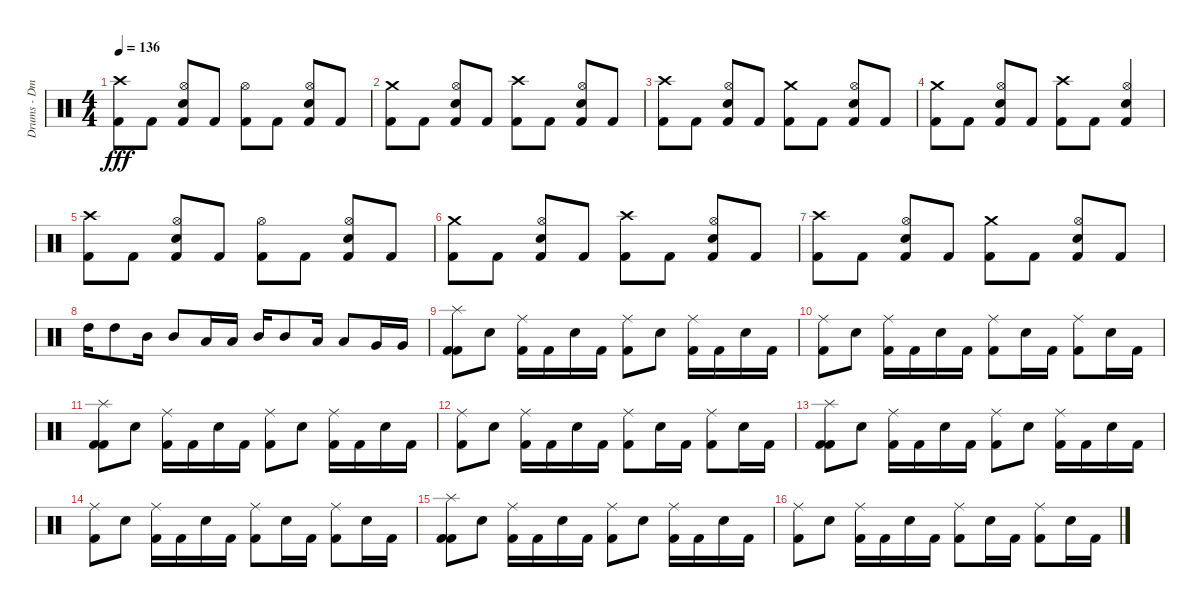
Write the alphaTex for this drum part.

\track ("Drums - Dmitriy Krivenkov" "Drums - Dm") {instrument percussion}
\staff {score}
\articulation defaults
\ts (4 4)
\tempo 136
\clef neutral
\ks c
("Crash high (hit)" "Kick (hit) 2").8{dy fff} "Kick (hit) 2".8 ("Hi-Hat (open)" "Kick (hit) 2" "Electric Snare (hit)").8 "Kick (hit) 2".8 ("Hi-Hat (open)" "Kick (hit) 2").8 "Kick (hit) 2".8 ("Hi-Hat (open)" "Kick (hit) 2" "Electric Snare (hit)").8 "Kick (hit) 2".8 |
("Kick (hit) 2" "Crash medium (hit)").8 "Kick (hit) 2".8 ("Electric Snare (hit)" "Kick (hit) 2" "Hi-Hat (open)").8 "Kick (hit) 2".8 ("Kick (hit) 2" "Crash high (hit)").8 "Kick (hit) 2".8 ("Electric Snare (hit)" "Kick (hit) 2" "Hi-Hat (open)").8 "Kick (hit) 2".8 |
("Crash high (hit)" "Kick (hit) 2").8 "Kick (hit) 2".8 ("Electric Snare (hit)" "Hi-Hat (open)" "Kick (hit) 2").8 "Kick (hit) 2".8 ("Crash medium (hit)" "Kick (hit) 2").8 "Kick (hit) 2".8 ("Electric Snare (hit)" "Hi-Hat (open)" "Kick (hit) 2").8 "Kick (hit) 2".8 |
("Crash medium (hit)" "Kick (hit) 2").8 "Kick (hit) 2".8 ("Hi-Hat (open)" "Electric Snare (hit)" "Kick (hit) 2").8 "Kick (hit) 2".8 ("Crash high (hit)" "Kick (hit) 2").8 "Kick (hit) 2".8 ("Hi-Hat (open)" "Electric Snare (hit)" "Kick (hit) 2").4 |
("Crash high (hit)" "Kick (hit) 2").8 "Kick (hit) 2".8 ("Kick (hit) 2" "Electric Snare (hit)" "Hi-Hat (open)").8 "Kick (hit) 2".8 ("Hi-Hat (open)" "Kick (hit) 2").8 "Kick (hit) 2".8 ("Electric Snare (hit)" "Kick (hit) 2" "Hi-Hat (open)").8 "Kick (hit) 2".8 |
("Kick (hit) 2" "Crash medium (hit)").8 "Kick (hit) 2".8 ("Electric Snare (hit)" "Hi-Hat (open)" "Kick (hit) 2").8 "Kick (hit) 2".8 ("Kick (hit) 2" "Crash high (hit)").8 "Kick (hit) 2".8 ("Electric Snare (hit)" "Hi-Hat (open)" "Kick (hit) 2").8 "Kick (hit) 2".8 |
("Kick (hit) 2" "Crash high (hit)").8 "Kick (hit) 2".8 ("Electric Snare (hit)" "Hi-Hat (open)" "Kick (hit) 2").8 "Kick (hit) 2".8 ("Crash medium (hit)" "Kick (hit) 2").8 "Kick (hit) 2".8 ("Electric Snare (hit)" "Hi-Hat (open)" "Kick (hit) 2").8 "Kick (hit) 2".8 |
"High Tom (hit)".16 "High Tom (hit)".8 "Mid Tom (hit)".16 "Mid Tom (hit)".8 "Low Tom (hit)".16 "Low Tom (hit)".16 "Mid Tom (hit)".16 "Mid Tom (hit)".8 "Low Tom (hit)".16 "Low Tom (hit)".8 "Very Low Tom (hit)".16 "Very Low Tom (hit)".16 |
("Splash (hit)" "Kick (hit) 2" "Kick (hit) 2").8 "Electric Snare (hit)".8 ("Kick (hit) 2" "Ride (middle)").16 "Kick (hit) 2".16 "Electric Snare (hit)".16 "Kick (hit) 2".16 ("Kick (hit) 2" "Ride (middle)").8 "Electric Snare (hit)".8 ("Ride (middle)" "Kick (hit) 2").16 "Kick (hit) 2".16 "Electric Snare (hit)".16 "Kick (hit) 2".16 |
("Ride (middle)" "Kick (hit) 2").8 "Electric Snare (hit)".8 ("Ride (middle)" "Kick (hit) 2").16 "Kick (hit) 2".16 "Electric Snare (hit)".16 "Kick (hit) 2".16 ("Kick (hit) 2" "Ride (middle)").8 "Electric Snare (hit)".16 "Kick (hit) 2".16 ("Ride (middle)" "Kick (hit) 2").8 "Electric Snare (hit)".16 "Kick (hit) 2".16 |
("Kick (hit) 2" "Kick (hit) 2" "Splash (hit)").8 "Electric Snare (hit)".8 ("Ride (middle)" "Kick (hit) 2").16 "Kick (hit) 2".16 "Electric Snare (hit)".16 "Kick (hit) 2".16 ("Ride (middle)" "Kick (hit) 2").8 "Electric Snare (hit)".8 ("Ride (middle)" "Kick (hit) 2").16 "Kick (hit) 2".16 "Electric Snare (hit)".16 "Kick (hit) 2".16 |
("Ride (middle)" "Kick (hit) 2").8 "Electric Snare (hit)".8 ("Ride (middle)" "Kick (hit) 2").16 "Kick (hit) 2".16 "Electric Snare (hit)".16 "Kick (hit) 2".16 ("Ride (middle)" "Kick (hit) 2").8 "Electric Snare (hit)".16 "Kick (hit) 2".16 ("Ride (middle)" "Kick (hit) 2").8 "Electric Snare (hit)".16 "Kick (hit) 2".16 |
("Splash (hit)" "Kick (hit) 2" "Kick (hit) 2").8 "Electric Snare (hit)".8 ("Kick (hit) 2" "Ride (middle)").16 "Kick (hit) 2".16 "Electric Snare (hit)".16 "Kick (hit) 2".16 ("Kick (hit) 2" "Ride (middle)").8 "Electric Snare (hit)".8 ("Ride (middle)" "Kick (hit) 2").16 "Kick (hit) 2".16 "Electric Snare (hit)".16 "Kick (hit) 2".16 |
("Ride (middle)" "Kick (hit) 2").8 "Electric Snare (hit)".8 ("Ride (middle)" "Kick (hit) 2").16 "Kick (hit) 2".16 "Electric Snare (hit)".16 "Kick (hit) 2".16 ("Kick (hit) 2" "Ride (middle)").8 "Electric Snare (hit)".16 "Kick (hit) 2".16 ("Ride (middle)" "Kick (hit) 2").8 "Electric Snare (hit)".16 "Kick (hit) 2".16 |
("Kick (hit) 2" "Kick (hit) 2" "Splash (hit)").8 "Electric Snare (hit)".8 ("Ride (middle)" "Kick (hit) 2").16 "Kick (hit) 2".16 "Electric Snare (hit)".16 "Kick (hit) 2".16 ("Ride (middle)" "Kick (hit) 2").8 "Electric Snare (hit)".8 ("Ride (middle)" "Kick (hit) 2").16 "Kick (hit) 2".16 "Electric Snare (hit)".16 "Kick (hit) 2".16 |
("Ride (middle)" "Kick (hit) 2").8 "Electric Snare (hit)".8 ("Ride (middle)" "Kick (hit) 2").16 "Kick (hit) 2".16 "Electric Snare (hit)".16 "Kick (hit) 2".16 ("Ride (middle)" "Kick (hit) 2").8 "Electric Snare (hit)".16 "Kick (hit) 2".16 ("Ride (middle)" "Kick (hit) 2").8 "Electric Snare (hit)".16 "Kick (hit) 2".16
